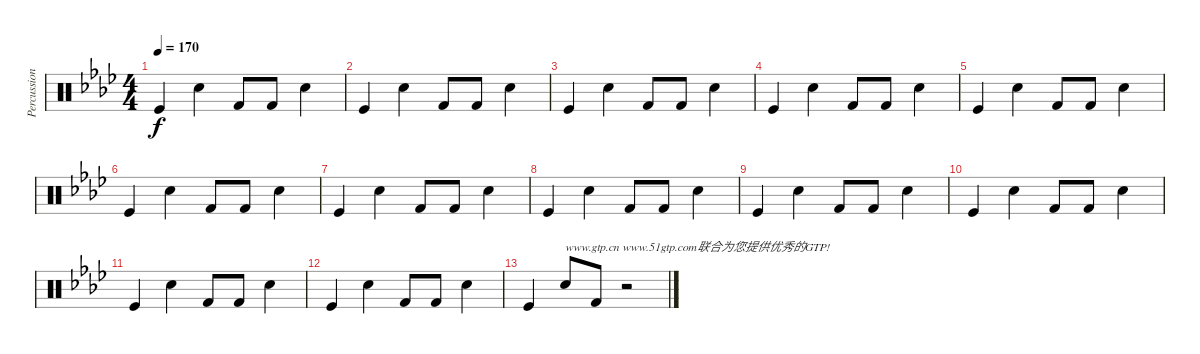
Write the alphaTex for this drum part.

\track ("Percussions" "Percussion") {instrument percussion}
\staff {score}
\articulation defaults
\ts (4 4)
\tempo 170
\clef neutral
\ks ab "Kick (hit)".4{dy f} "Snare (hit) 2".4 "Kick (hit) 2".8 "Kick (hit) 2".8 "Snare (hit) 2".4
|
"Kick (hit)".4 "Snare (hit) 2".4 "Kick (hit) 2".8 "Kick (hit) 2".8 "Snare (hit) 2".4 |
"Kick (hit)".4 "Snare (hit) 2".4 "Kick (hit) 2".8 "Kick (hit) 2".8 "Snare (hit) 2".4 |
"Kick (hit)".4 "Snare (hit) 2".4 "Kick (hit) 2".8 "Kick (hit) 2".8 "Snare (hit) 2".4 |
"Kick (hit)".4 "Snare (hit) 2".4 "Kick (hit) 2".8 "Kick (hit) 2".8 "Snare (hit) 2".4 |
"Kick (hit)".4 "Snare (hit) 2".4 "Kick (hit) 2".8 "Kick (hit) 2".8 "Snare (hit) 2".4 |
"Kick (hit)".4 "Snare (hit) 2".4 "Kick (hit) 2".8 "Kick (hit) 2".8 "Snare (hit) 2".4 |
"Kick (hit)".4 "Snare (hit) 2".4 "Kick (hit) 2".8 "Kick (hit) 2".8 "Snare (hit) 2".4 |
"Kick (hit)".4 "Snare (hit) 2".4 "Kick (hit) 2".8 "Kick (hit) 2".8 "Snare (hit) 2".4 |
"Kick (hit)".4 "Snare (hit) 2".4 "Kick (hit) 2".8 "Kick (hit) 2".8 "Snare (hit) 2".4 |
"Kick (hit)".4 "Snare (hit) 2".4 "Kick (hit) 2".8 "Kick (hit) 2".8 "Snare (hit) 2".4 |
"Kick (hit)".4 "Snare (hit) 2".4 "Kick (hit) 2".8 "Kick (hit) 2".8 "Snare (hit) 2".4 |
"Kick (hit)".4 "Snare (hit) 2".8{txt "www.gtp.cn www.51gtp.com联合为您提供优秀的GTP!"} "Kick (hit) 2".8 r.2
